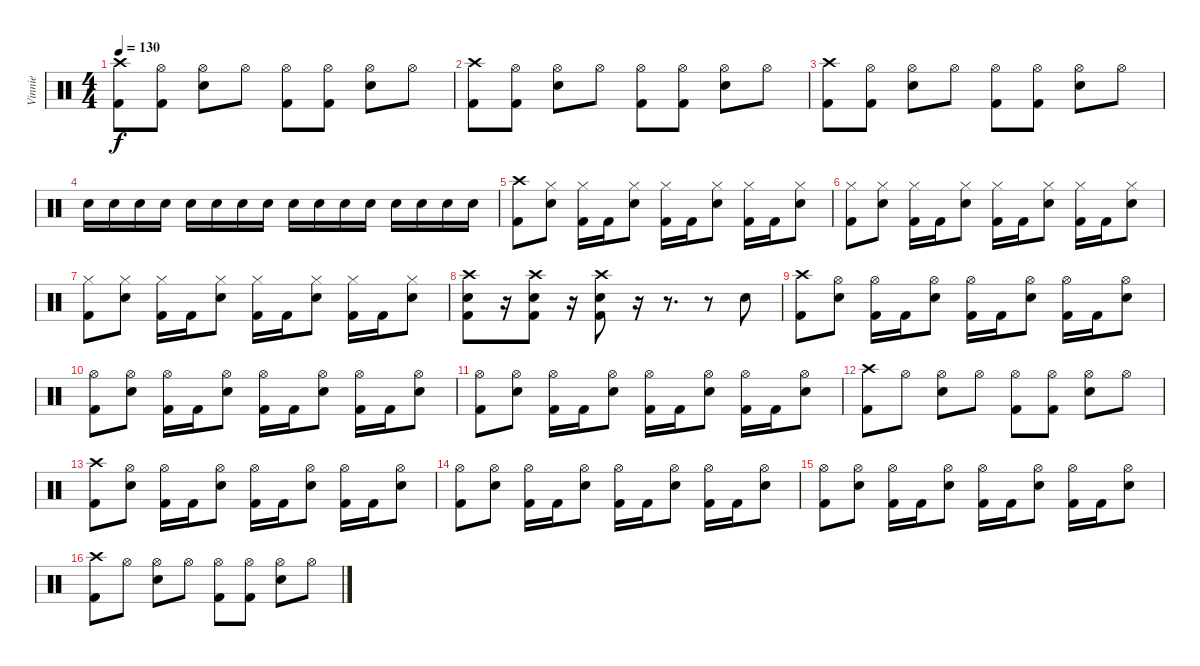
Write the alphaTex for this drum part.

\track ("Vinnie" "Vinnie") {instrument percussion}
\staff {score}
\articulation defaults
\ts (4 4)
\tempo 130
\clef neutral
\ks c
("Crash high (hit)" "Kick (hit) 2").8{dy f} ("Hi-Hat (open)" "Kick (hit) 2").8 ("Hi-Hat (open)" "Electric Snare (hit)").8 "Hi-Hat (open)".8 ("Hi-Hat (open)" "Kick (hit) 2").8 ("Hi-Hat (open)" "Kick (hit) 2").8 ("Hi-Hat (open)" "Electric Snare (hit)").8 "Hi-Hat (open)".8 |
("Crash high (hit)" "Kick (hit) 2").8 ("Hi-Hat (open)" "Kick (hit) 2").8 ("Hi-Hat (open)" "Electric Snare (hit)").8 "Hi-Hat (open)".8 ("Hi-Hat (open)" "Kick (hit) 2").8 ("Hi-Hat (open)" "Kick (hit) 2").8 ("Hi-Hat (open)" "Electric Snare (hit)").8 "Hi-Hat (open)".8 |
("Crash high (hit)" "Kick (hit) 2").8 ("Hi-Hat (open)" "Kick (hit) 2").8 ("Hi-Hat (open)" "Electric Snare (hit)").8 "Hi-Hat (open)".8 ("Hi-Hat (open)" "Kick (hit) 2").8 ("Hi-Hat (open)" "Kick (hit) 2").8 ("Hi-Hat (open)" "Electric Snare (hit)").8 "Hi-Hat (open)".8 |
"Electric Snare (hit)".16 "Electric Snare (hit)".16 "Electric Snare (hit)".16 "Electric Snare (hit)".16 "Electric Snare (hit)".16 "Electric Snare (hit)".16 "Electric Snare (hit)".16 "Electric Snare (hit)".16 "Electric Snare (hit)".16 "Electric Snare (hit)".16 "Electric Snare (hit)".16 "Electric Snare (hit)".16 "Electric Snare (hit)".16 "Electric Snare (hit)".16 "Electric Snare (hit)".16 "Electric Snare (hit)".16 |
("Crash high (hit)" "Kick (hit) 2").8 ("Hi-Hat (closed)" "Electric Snare (hit)").8 ("Hi-Hat (closed)" "Kick (hit) 2").16 "Kick (hit) 2".16 ("Hi-Hat (closed)" "Electric Snare (hit)").8 ("Hi-Hat (closed)" "Kick (hit) 2").16 "Kick (hit) 2".16 ("Hi-Hat (closed)" "Electric Snare (hit)").8 ("Hi-Hat (closed)" "Kick (hit) 2").16 "Kick (hit) 2".16 ("Hi-Hat (closed)" "Electric Snare (hit)").8 |
("Hi-Hat (closed)" "Kick (hit) 2").8 ("Hi-Hat (closed)" "Electric Snare (hit)").8 ("Hi-Hat (closed)" "Kick (hit) 2").16 "Kick (hit) 2".16 ("Hi-Hat (closed)" "Electric Snare (hit)").8 ("Hi-Hat (closed)" "Kick (hit) 2").16 "Kick (hit) 2".16 ("Hi-Hat (closed)" "Electric Snare (hit)").8 ("Hi-Hat (closed)" "Kick (hit) 2").16 "Kick (hit) 2".16 ("Hi-Hat (closed)" "Electric Snare (hit)").8 |
("Hi-Hat (closed)" "Kick (hit) 2").8 ("Hi-Hat (closed)" "Electric Snare (hit)").8 ("Hi-Hat (closed)" "Kick (hit) 2").16 "Kick (hit) 2".16 ("Hi-Hat (closed)" "Electric Snare (hit)").8 ("Hi-Hat (closed)" "Kick (hit) 2").16 "Kick (hit) 2".16 ("Hi-Hat (closed)" "Electric Snare (hit)").8 ("Hi-Hat (closed)" "Kick (hit) 2").16 "Kick (hit) 2".16 ("Hi-Hat (closed)" "Electric Snare (hit)").8 |
("Crash high (hit)" "Electric Snare (hit)" "Kick (hit) 2").8 r.16 ("Crash high (hit)" "Electric Snare (hit)" "Kick (hit) 2").8 r.16 ("Crash high (hit)" "Electric Snare (hit)" "Kick (hit) 2").8 r.16 r.8{d} r.8 "Electric Snare (hit)".8 |
("Crash high (hit)" "Kick (hit) 2").8 ("Hi-Hat (open)" "Electric Snare (hit)").8 ("Hi-Hat (open)" "Kick (hit) 2").16 "Kick (hit) 2".16 ("Hi-Hat (open)" "Electric Snare (hit)").8 ("Hi-Hat (open)" "Kick (hit) 2").16 "Kick (hit) 2".16 ("Hi-Hat (open)" "Electric Snare (hit)").8 ("Hi-Hat (open)" "Kick (hit) 2").16 "Kick (hit) 2".16 ("Hi-Hat (open)" "Electric Snare (hit)").8 |
("Hi-Hat (open)" "Kick (hit) 2").8 ("Hi-Hat (open)" "Electric Snare (hit)").8 ("Hi-Hat (open)" "Kick (hit) 2").16 "Kick (hit) 2".16 ("Hi-Hat (open)" "Electric Snare (hit)").8 ("Hi-Hat (open)" "Kick (hit) 2").16 "Kick (hit) 2".16 ("Hi-Hat (open)" "Electric Snare (hit)").8 ("Hi-Hat (open)" "Kick (hit) 2").16 "Kick (hit) 2".16 ("Hi-Hat (open)" "Electric Snare (hit)").8 |
("Hi-Hat (open)" "Kick (hit) 2").8 ("Hi-Hat (open)" "Electric Snare (hit)").8 ("Hi-Hat (open)" "Kick (hit) 2").16 "Kick (hit) 2".16 ("Hi-Hat (open)" "Electric Snare (hit)").8 ("Hi-Hat (open)" "Kick (hit) 2").16 "Kick (hit) 2".16 ("Hi-Hat (open)" "Electric Snare (hit)").8 ("Hi-Hat (open)" "Kick (hit) 2").16 "Kick (hit) 2".16 ("Hi-Hat (open)" "Electric Snare (hit)").8 |
("Crash high (hit)" "Kick (hit) 2").8 "Hi-Hat (open)".8 ("Hi-Hat (open)" "Electric Snare (hit)").8 "Hi-Hat (open)".8 ("Hi-Hat (open)" "Kick (hit) 2").8 ("Hi-Hat (open)" "Kick (hit) 2").8 ("Hi-Hat (open)" "Electric Snare (hit)").8 "Hi-Hat (open)".8 |
("Crash high (hit)" "Kick (hit) 2").8 ("Hi-Hat (open)" "Electric Snare (hit)").8 ("Hi-Hat (open)" "Kick (hit) 2").16 "Kick (hit) 2".16 ("Hi-Hat (open)" "Electric Snare (hit)").8 ("Hi-Hat (open)" "Kick (hit) 2").16 "Kick (hit) 2".16 ("Hi-Hat (open)" "Electric Snare (hit)").8 ("Hi-Hat (open)" "Kick (hit) 2").16 "Kick (hit) 2".16 ("Hi-Hat (open)" "Electric Snare (hit)").8 |
("Hi-Hat (open)" "Kick (hit) 2").8 ("Hi-Hat (open)" "Electric Snare (hit)").8 ("Hi-Hat (open)" "Kick (hit) 2").16 "Kick (hit) 2".16 ("Hi-Hat (open)" "Electric Snare (hit)").8 ("Hi-Hat (open)" "Kick (hit) 2").16 "Kick (hit) 2".16 ("Hi-Hat (open)" "Electric Snare (hit)").8 ("Hi-Hat (open)" "Kick (hit) 2").16 "Kick (hit) 2".16 ("Hi-Hat (open)" "Electric Snare (hit)").8 |
("Hi-Hat (open)" "Kick (hit) 2").8 ("Hi-Hat (open)" "Electric Snare (hit)").8 ("Hi-Hat (open)" "Kick (hit) 2").16 "Kick (hit) 2".16 ("Hi-Hat (open)" "Electric Snare (hit)").8 ("Hi-Hat (open)" "Kick (hit) 2").16 "Kick (hit) 2".16 ("Hi-Hat (open)" "Electric Snare (hit)").8 ("Hi-Hat (open)" "Kick (hit) 2").16 "Kick (hit) 2".16 ("Hi-Hat (open)" "Electric Snare (hit)").8 |
("Crash high (hit)" "Kick (hit) 2").8 "Hi-Hat (open)".8 ("Hi-Hat (open)" "Electric Snare (hit)").8 "Hi-Hat (open)".8 ("Hi-Hat (open)" "Kick (hit) 2").8 ("Hi-Hat (open)" "Kick (hit) 2").8 ("Hi-Hat (open)" "Electric Snare (hit)").8 "Hi-Hat (open)".8
